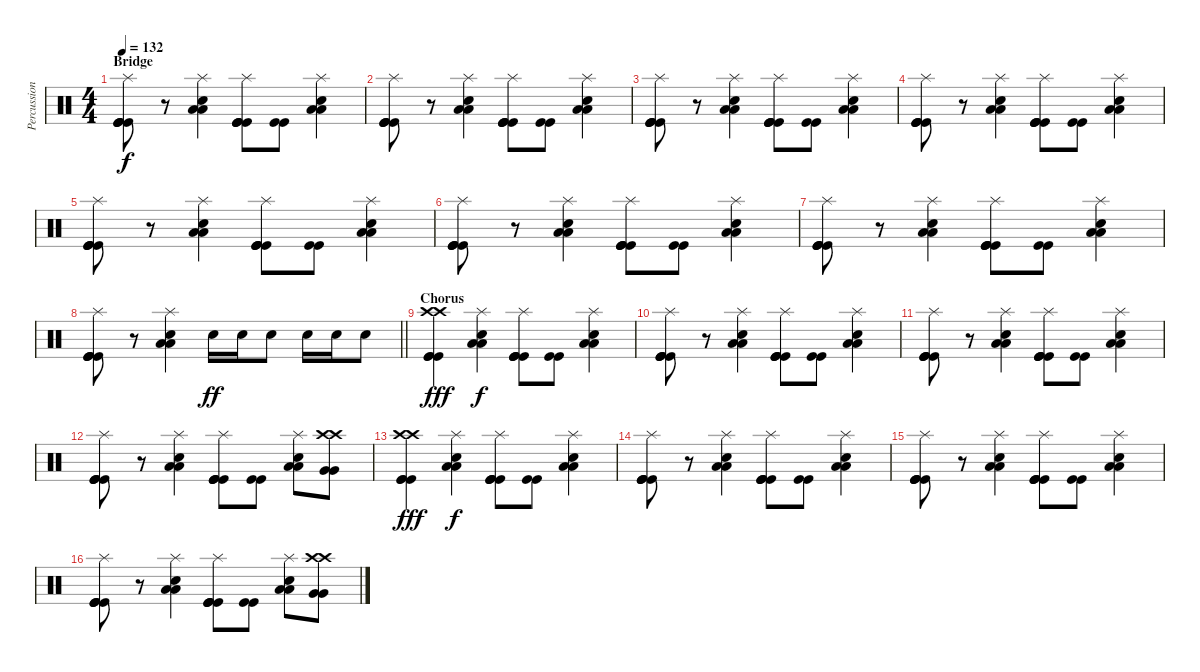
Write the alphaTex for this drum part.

\track ("Percussion" "Percussion") {instrument percussion}
\staff {score}
\articulation defaults
\ts (4 4)
\section ("" "Bridge")
\tempo 132
\clef neutral
\ks c
("Splash (hit)" "Kick (hit)" "Kick (hit)" "Kick (hit)" "Kick (hit)").8{dy f} r.8 ("Splash (hit)" "Low Tom (hit)" "Low Tom (hit)" "Electric Snare (hit)").4 ("Splash (hit)" "Kick (hit)" "Kick (hit)" "Kick (hit)" "Kick (hit)").8 ("Kick (hit)" "Kick (hit)").8 ("Splash (hit)" "Low Tom (hit)" "Low Tom (hit)" "Electric Snare (hit)").4 |
("Splash (hit)" "Kick (hit)" "Kick (hit)" "Kick (hit)" "Kick (hit)").8 r.8 ("Splash (hit)" "Low Tom (hit)" "Low Tom (hit)" "Electric Snare (hit)").4 ("Splash (hit)" "Kick (hit)" "Kick (hit)" "Kick (hit)" "Kick (hit)").8 ("Kick (hit)" "Kick (hit)").8 ("Splash (hit)" "Low Tom (hit)" "Low Tom (hit)" "Electric Snare (hit)").4 |
("Splash (hit)" "Kick (hit)" "Kick (hit)" "Kick (hit)" "Kick (hit)").8 r.8 ("Splash (hit)" "Low Tom (hit)" "Low Tom (hit)" "Electric Snare (hit)").4 ("Splash (hit)" "Kick (hit)" "Kick (hit)" "Kick (hit)" "Kick (hit)").8 ("Kick (hit)" "Kick (hit)").8 ("Splash (hit)" "Low Tom (hit)" "Low Tom (hit)" "Electric Snare (hit)").4 |
("Splash (hit)" "Kick (hit)" "Kick (hit)" "Kick (hit)" "Kick (hit)").8 r.8 ("Splash (hit)" "Low Tom (hit)" "Low Tom (hit)" "Electric Snare (hit)").4 ("Splash (hit)" "Kick (hit)" "Kick (hit)" "Kick (hit)" "Kick (hit)").8 ("Kick (hit)" "Kick (hit)").8 ("Splash (hit)" "Low Tom (hit)" "Low Tom (hit)" "Electric Snare (hit)").4 |
("Splash (hit)" "Kick (hit)" "Kick (hit)" "Kick (hit)" "Kick (hit)").8 r.8 ("Splash (hit)" "Low Tom (hit)" "Low Tom (hit)" "Electric Snare (hit)").4 ("Splash (hit)" "Kick (hit)" "Kick (hit)" "Kick (hit)" "Kick (hit)").8 ("Kick (hit)" "Kick (hit)").8 ("Splash (hit)" "Low Tom (hit)" "Low Tom (hit)" "Electric Snare (hit)").4 |
("Splash (hit)" "Kick (hit)" "Kick (hit)" "Kick (hit)" "Kick (hit)").8 r.8 ("Splash (hit)" "Low Tom (hit)" "Low Tom (hit)" "Electric Snare (hit)").4 ("Splash (hit)" "Kick (hit)" "Kick (hit)" "Kick (hit)" "Kick (hit)").8 ("Kick (hit)" "Kick (hit)").8 ("Splash (hit)" "Low Tom (hit)" "Low Tom (hit)" "Electric Snare (hit)").4 |
("Splash (hit)" "Kick (hit)" "Kick (hit)" "Kick (hit)" "Kick (hit)").8 r.8 ("Splash (hit)" "Low Tom (hit)" "Low Tom (hit)" "Electric Snare (hit)").4 ("Splash (hit)" "Kick (hit)" "Kick (hit)" "Kick (hit)" "Kick (hit)").8 ("Kick (hit)" "Kick (hit)").8 ("Splash (hit)" "Low Tom (hit)" "Low Tom (hit)" "Electric Snare (hit)").4 |
\barLineRight lightlight
("Splash (hit)" "Kick (hit)" "Kick (hit)" "Kick (hit)" "Kick (hit)").8 r.8 ("Splash (hit)" "Low Tom (hit)" "Low Tom (hit)" "Electric Snare (hit)").4 "Electric Snare (hit)".16{dy ff} "Electric Snare (hit)".16 "Electric Snare (hit)".8 "Electric Snare (hit)".16 "Electric Snare (hit)".16 "Electric Snare (hit)".8 |
\section ("" "Chorus")
("Crash high (hit)" "Crash high (hit)" "Kick (hit)" "Kick (hit)" "Kick (hit)").4{dy fff} ("Splash (hit)" "Low Tom (hit)" "Low Tom (hit)" "Electric Snare (hit)").4{dy f} ("Splash (hit)" "Kick (hit)" "Kick (hit)" "Kick (hit)" "Kick (hit)").8 ("Kick (hit)" "Kick (hit)").8 ("Splash (hit)" "Low Tom (hit)" "Low Tom (hit)" "Electric Snare (hit)").4 |
("Splash (hit)" "Kick (hit)" "Kick (hit)" "Kick (hit)" "Kick (hit)").8 r.8 ("Splash (hit)" "Low Tom (hit)" "Low Tom (hit)" "Electric Snare (hit)").4 ("Splash (hit)" "Kick (hit)" "Kick (hit)" "Kick (hit)" "Kick (hit)").8 ("Kick (hit)" "Kick (hit)").8 ("Splash (hit)" "Low Tom (hit)" "Low Tom (hit)" "Electric Snare (hit)").4 |
("Splash (hit)" "Kick (hit)" "Kick (hit)" "Kick (hit)" "Kick (hit)").8 r.8 ("Splash (hit)" "Low Tom (hit)" "Low Tom (hit)" "Electric Snare (hit)").4 ("Splash (hit)" "Kick (hit)" "Kick (hit)" "Kick (hit)" "Kick (hit)").8 ("Kick (hit)" "Kick (hit)").8 ("Splash (hit)" "Low Tom (hit)" "Low Tom (hit)" "Electric Snare (hit)").4 |
("Splash (hit)" "Kick (hit)" "Kick (hit)" "Kick (hit)" "Kick (hit)").8 r.8 ("Splash (hit)" "Low Tom (hit)" "Low Tom (hit)" "Electric Snare (hit)").4 ("Splash (hit)" "Kick (hit)" "Kick (hit)" "Kick (hit)" "Kick (hit)").8 ("Kick (hit)" "Kick (hit)").8 ("Splash (hit)" "Low Tom (hit)" "Low Tom (hit)" "Electric Snare (hit)").8 ("Crash high (hit)" "Crash high (hit)" "Very Low Tom (hit)" "Very Low Tom (hit)").8 |
("Crash high (hit)" "Crash high (hit)" "Kick (hit)" "Kick (hit)" "Kick (hit)").4{dy fff} ("Splash (hit)" "Low Tom (hit)" "Low Tom (hit)" "Electric Snare (hit)").4{dy f} ("Splash (hit)" "Kick (hit)" "Kick (hit)" "Kick (hit)" "Kick (hit)").8 ("Kick (hit)" "Kick (hit)").8 ("Splash (hit)" "Low Tom (hit)" "Low Tom (hit)" "Electric Snare (hit)").4 |
("Splash (hit)" "Kick (hit)" "Kick (hit)" "Kick (hit)" "Kick (hit)").8 r.8 ("Splash (hit)" "Low Tom (hit)" "Low Tom (hit)" "Electric Snare (hit)").4 ("Splash (hit)" "Kick (hit)" "Kick (hit)" "Kick (hit)" "Kick (hit)").8 ("Kick (hit)" "Kick (hit)").8 ("Splash (hit)" "Low Tom (hit)" "Low Tom (hit)" "Electric Snare (hit)").4 |
("Splash (hit)" "Kick (hit)" "Kick (hit)" "Kick (hit)" "Kick (hit)").8 r.8 ("Splash (hit)" "Low Tom (hit)" "Low Tom (hit)" "Electric Snare (hit)").4 ("Splash (hit)" "Kick (hit)" "Kick (hit)" "Kick (hit)" "Kick (hit)").8 ("Kick (hit)" "Kick (hit)").8 ("Splash (hit)" "Low Tom (hit)" "Low Tom (hit)" "Electric Snare (hit)").4 |
("Splash (hit)" "Kick (hit)" "Kick (hit)" "Kick (hit)" "Kick (hit)").8 r.8 ("Splash (hit)" "Low Tom (hit)" "Low Tom (hit)" "Electric Snare (hit)").4 ("Splash (hit)" "Kick (hit)" "Kick (hit)" "Kick (hit)" "Kick (hit)").8 ("Kick (hit)" "Kick (hit)").8 ("Splash (hit)" "Low Tom (hit)" "Low Tom (hit)" "Electric Snare (hit)").8 ("Crash high (hit)" "Crash high (hit)" "Very Low Tom (hit)" "Very Low Tom (hit)").8
